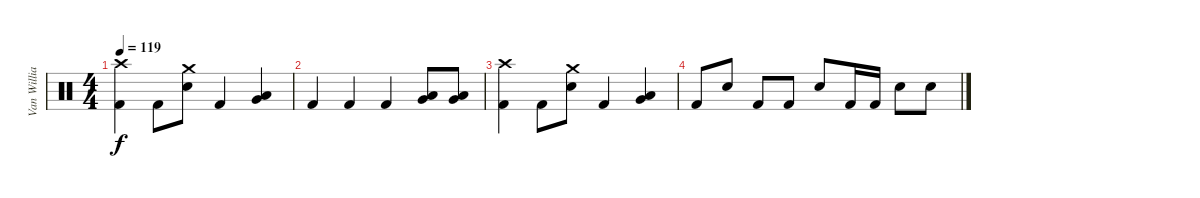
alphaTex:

\track ("Van Williams" "Van Willia") {instrument percussion}
\staff {score}
\articulation defaults
\ts (4 4)
\tempo 119
\clef neutral
\ks c
("Crash high (hit)" "Kick (hit) 2").4{dy f} "Kick (hit) 2".8 ("Crash medium (hit)" "Electric Snare (hit)").8 "Kick (hit) 2".4 ("Very Low Tom (hit)" "Low Floor Tom (hit)").4 |
"Kick (hit) 2".4 "Kick (hit) 2".4 "Kick (hit) 2".4 ("Very Low Tom (hit)" "Low Floor Tom (hit)").8 ("Very Low Tom (hit)" "Low Floor Tom (hit)").8 |
("Crash high (hit)" "Kick (hit) 2").4 "Kick (hit) 2".8 ("Crash medium (hit)" "Electric Snare (hit)").8 "Kick (hit) 2".4 ("Very Low Tom (hit)" "Low Floor Tom (hit)").4 |
"Kick (hit) 2".8 "Electric Snare (hit)".8 "Kick (hit) 2".8 "Kick (hit) 2".8 "Electric Snare (hit)".8 "Kick (hit) 2".16 "Kick (hit) 2".16 "Electric Snare (hit)".8 "Electric Snare (hit)".8
